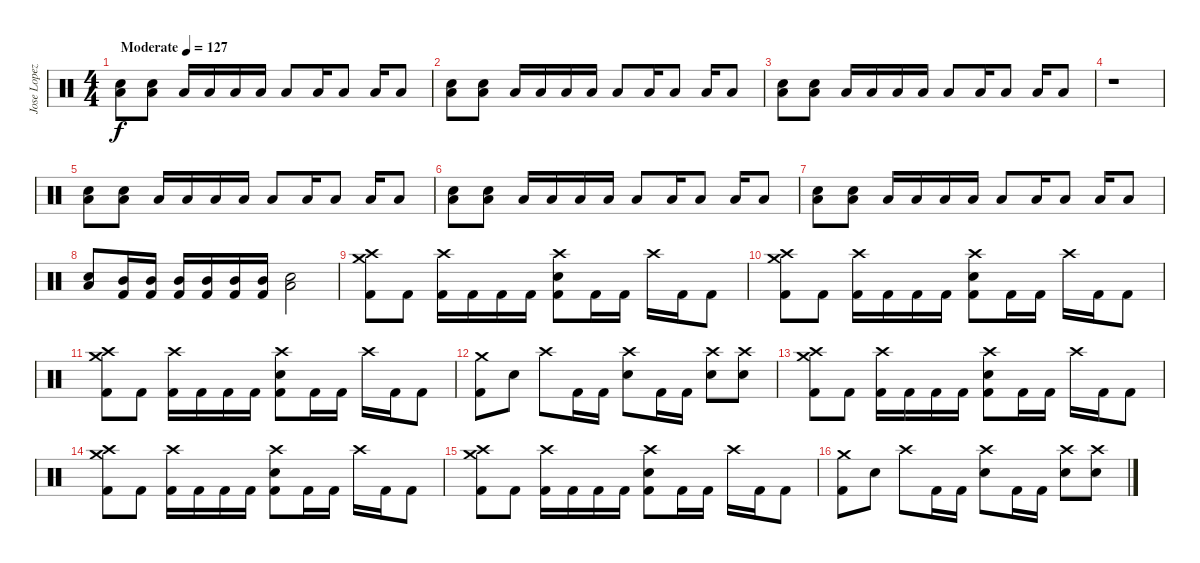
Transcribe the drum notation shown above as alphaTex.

\track ("Jose Lopez" "Jose Lopez") {instrument percussion}
\staff {score}
\articulation defaults
\ts (4 4)
\tempo (127 "Moderate")
\clef neutral
\ks c
("Electric Snare (hit)" "Low Tom (hit)").8{dy f} ("Electric Snare (hit)" "Low Tom (hit)").8 "Low Tom (hit)".16 "Low Tom (hit)".16 "Low Tom (hit)".16 "Low Tom (hit)".16 "Low Tom (hit)".8 "Low Tom (hit)".16 "Low Tom (hit)".8 "Low Tom (hit)".16 "Low Tom (hit)".8 |
("Electric Snare (hit)" "Low Tom (hit)").8 ("Electric Snare (hit)" "Low Tom (hit)").8 "Low Tom (hit)".16 "Low Tom (hit)".16 "Low Tom (hit)".16 "Low Tom (hit)".16 "Low Tom (hit)".8 "Low Tom (hit)".16 "Low Tom (hit)".8 "Low Tom (hit)".16 "Low Tom (hit)".8 |
("Electric Snare (hit)" "Low Tom (hit)").8 ("Electric Snare (hit)" "Low Tom (hit)").8 "Low Tom (hit)".16 "Low Tom (hit)".16 "Low Tom (hit)".16 "Low Tom (hit)".16 "Low Tom (hit)".8 "Low Tom (hit)".16 "Low Tom (hit)".8 "Low Tom (hit)".16 "Low Tom (hit)".8 |
r.1 |
("Electric Snare (hit)" "Low Tom (hit)").8 ("Electric Snare (hit)" "Low Tom (hit)").8 "Low Tom (hit)".16 "Low Tom (hit)".16 "Low Tom (hit)".16 "Low Tom (hit)".16 "Low Tom (hit)".8 "Low Tom (hit)".16 "Low Tom (hit)".8 "Low Tom (hit)".16 "Low Tom (hit)".8 |
("Electric Snare (hit)" "Low Tom (hit)").8 ("Electric Snare (hit)" "Low Tom (hit)").8 "Low Tom (hit)".16 "Low Tom (hit)".16 "Low Tom (hit)".16 "Low Tom (hit)".16 "Low Tom (hit)".8 "Low Tom (hit)".16 "Low Tom (hit)".8 "Low Tom (hit)".16 "Low Tom (hit)".8 |
("Electric Snare (hit)" "Low Tom (hit)").8 ("Electric Snare (hit)" "Low Tom (hit)").8 "Low Tom (hit)".16 "Low Tom (hit)".16 "Low Tom (hit)".16 "Low Tom (hit)".16 "Low Tom (hit)".8 "Low Tom (hit)".16 "Low Tom (hit)".8 "Low Tom (hit)".16 "Low Tom (hit)".8 |
("Electric Snare (hit)" "Low Tom (hit)").8 ("Mid Tom (hit)" "Kick (hit) 2").16 ("Mid Tom (hit)" "Kick (hit) 2").16 ("Mid Tom (hit)" "Kick (hit) 2").16 ("Mid Tom (hit)" "Kick (hit) 2").16 ("Mid Tom (hit)" "Kick (hit) 2").16 ("Mid Tom (hit)" "Kick (hit) 2").16 ("Electric Snare (hit)" "Low Tom (hit)").2 |
("Crash high (hit)" "Crash medium (hit)" "Kick (hit) 2").8 "Kick (hit) 2".8 ("Crash high (hit)" "Kick (hit) 2").16 "Kick (hit) 2".16 "Kick (hit) 2".16 "Kick (hit) 2".16 ("Crash high (hit)" "Electric Snare (hit)" "Kick (hit) 2").8 "Kick (hit) 2".16 "Kick (hit) 2".16 "Crash high (hit)".16 "Kick (hit) 2".16 "Kick (hit) 2".8 |
("Crash high (hit)" "Crash medium (hit)" "Kick (hit) 2").8 "Kick (hit) 2".8 ("Crash high (hit)" "Kick (hit) 2").16 "Kick (hit) 2".16 "Kick (hit) 2".16 "Kick (hit) 2".16 ("Crash high (hit)" "Electric Snare (hit)" "Kick (hit) 2").8 "Kick (hit) 2".16 "Kick (hit) 2".16 "Crash high (hit)".16 "Kick (hit) 2".16 "Kick (hit) 2".8 |
("Crash high (hit)" "Crash medium (hit)" "Kick (hit) 2").8 "Kick (hit) 2".8 ("Crash high (hit)" "Kick (hit) 2").16 "Kick (hit) 2".16 "Kick (hit) 2".16 "Kick (hit) 2".16 ("Crash high (hit)" "Electric Snare (hit)" "Kick (hit) 2").8 "Kick (hit) 2".16 "Kick (hit) 2".16 "Crash high (hit)".16 "Kick (hit) 2".16 "Kick (hit) 2".8 |
("Crash medium (hit)" "Kick (hit) 2").8 "Electric Snare (hit)".8 "Crash high (hit)".8 "Kick (hit) 2".16 "Kick (hit) 2".16 ("Crash high (hit)" "Electric Snare (hit)").8 "Kick (hit) 2".16 "Kick (hit) 2".16 ("Crash high (hit)" "Electric Snare (hit)").8 ("Crash high (hit)" "Electric Snare (hit)").8 |
("Crash high (hit)" "Crash medium (hit)" "Kick (hit) 2").8 "Kick (hit) 2".8 ("Crash high (hit)" "Kick (hit) 2").16 "Kick (hit) 2".16 "Kick (hit) 2".16 "Kick (hit) 2".16 ("Crash high (hit)" "Electric Snare (hit)" "Kick (hit) 2").8 "Kick (hit) 2".16 "Kick (hit) 2".16 "Crash high (hit)".16 "Kick (hit) 2".16 "Kick (hit) 2".8 |
("Crash high (hit)" "Crash medium (hit)" "Kick (hit) 2").8 "Kick (hit) 2".8 ("Crash high (hit)" "Kick (hit) 2").16 "Kick (hit) 2".16 "Kick (hit) 2".16 "Kick (hit) 2".16 ("Crash high (hit)" "Electric Snare (hit)" "Kick (hit) 2").8 "Kick (hit) 2".16 "Kick (hit) 2".16 "Crash high (hit)".16 "Kick (hit) 2".16 "Kick (hit) 2".8 |
("Crash high (hit)" "Crash medium (hit)" "Kick (hit) 2").8 "Kick (hit) 2".8 ("Crash high (hit)" "Kick (hit) 2").16 "Kick (hit) 2".16 "Kick (hit) 2".16 "Kick (hit) 2".16 ("Crash high (hit)" "Electric Snare (hit)" "Kick (hit) 2").8 "Kick (hit) 2".16 "Kick (hit) 2".16 "Crash high (hit)".16 "Kick (hit) 2".16 "Kick (hit) 2".8 |
("Crash medium (hit)" "Kick (hit) 2").8 "Electric Snare (hit)".8 "Crash high (hit)".8 "Kick (hit) 2".16 "Kick (hit) 2".16 ("Crash high (hit)" "Electric Snare (hit)").8 "Kick (hit) 2".16 "Kick (hit) 2".16 ("Crash high (hit)" "Electric Snare (hit)").8 ("Crash high (hit)" "Electric Snare (hit)").8
